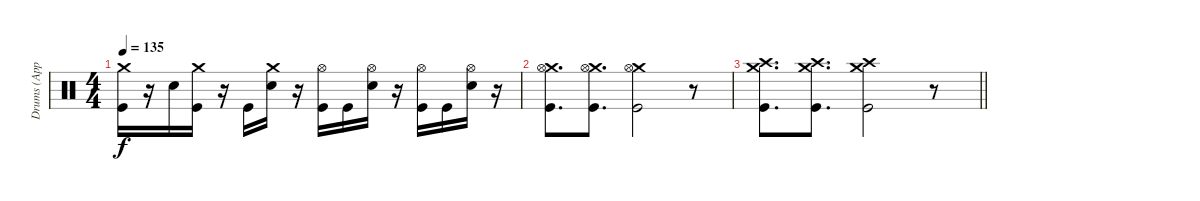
\track ("Drums (Approx.)" "Drums (App") {instrument percussion}
\staff {score}
\articulation defaults
\ts (4 4)
\tempo 135
\clef neutral
\ks c
("Crash medium (hit)" "Kick (hit)").16{dy f} r.16 "Electric Snare (hit)".16 ("Crash medium (hit)" "Kick (hit)").16 r.16 "Kick (hit)".16 ("Crash medium (hit)" "Electric Snare (hit)").16 r.16 ("Hi-Hat (open)" "Kick (hit)").16 "Kick (hit)".16 ("Hi-Hat (open)" "Electric Snare (hit)").16 r.16 ("Hi-Hat (open)" "Kick (hit)").16 "Kick (hit)".16 ("Hi-Hat (open)" "Electric Snare (hit)").16 r.16 |
("Crash medium (hit)" "Hi-Hat (open)" "Kick (hit)").8{d} ("Crash medium (hit)" "Hi-Hat (open)" "Kick (hit)").8{d} ("Crash medium (hit)" "Hi-Hat (open)" "Kick (hit)").2 r.8 |
\barLineRight lightlight
("Crash medium (hit)" "Crash high (hit)" "Kick (hit)").8{d} ("Crash medium (hit)" "Crash high (hit)" "Kick (hit)").8{d} ("Crash medium (hit)" "Crash high (hit)" "Kick (hit)").2 r.8
